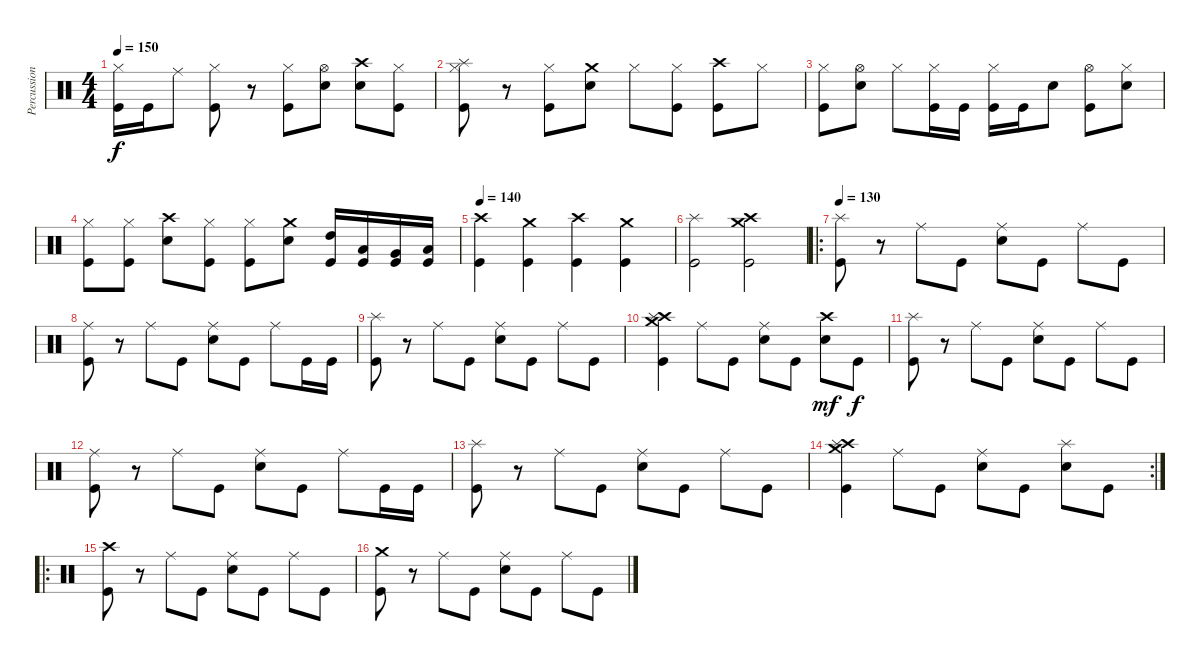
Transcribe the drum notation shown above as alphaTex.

\track ("Percussion" "Percussion") {instrument percussion}
\staff {score}
\articulation defaults
\ts (4 4)
\tempo 150
\clef neutral
\ks c
("Hi-Hat (closed)" "Kick (hit)").16{dy f} "Kick (hit)".16 "Ride (middle)".8 ("Hi-Hat (closed)" "Kick (hit)").8 r.8 ("Hi-Hat (closed)" "Kick (hit)").8 ("Hi-Hat (open)" "Electric Snare (hit)").8 ("Crash high (hit)" "Electric Snare (hit)").8 ("Hi-Hat (closed)" "Kick (hit)").8 |
("Splash (hit)" "Hi-Hat (closed)" "Kick (hit)").8 r.8 ("Hi-Hat (closed)" "Kick (hit)").8 ("Crash medium (hit)" "Electric Snare (hit)").8 "Hi-Hat (closed)".8 ("Hi-Hat (closed)" "Kick (hit)").8 ("Crash high (hit)" "Kick (hit)").8 "Hi-Hat (closed)".8 |
("Hi-Hat (closed)" "Kick (hit)").8 ("Hi-Hat (open)" "Electric Snare (hit)").8 "Hi-Hat (closed)".8 ("Hi-Hat (closed)" "Kick (hit)").16 "Kick (hit)".16 ("Hi-Hat (closed)" "Kick (hit)").16 "Kick (hit)".16 "Electric Snare (hit)".8 ("Hi-Hat (open)" "Kick (hit)").8 ("Hi-Hat (closed)" "Electric Snare (hit)").8 |
("Hi-Hat (closed)" "Kick (hit)").8 ("Hi-Hat (closed)" "Kick (hit)").8 ("Crash high (hit)" "Electric Snare (hit)").8 ("Hi-Hat (closed)" "Kick (hit)").8 ("Hi-Hat (closed)" "Kick (hit)").8 ("Crash medium (hit)" "Electric Snare (hit)").8 ("High Tom (hit)" "Kick (hit)").16 ("Low Tom (hit)" "Kick (hit)").16 ("Very Low Tom (hit)" "Kick (hit)").16 ("Low Floor Tom (hit)" "Kick (hit)").16 |
\tempo 140
("Crash high (hit)" "Kick (hit)").4 ("Crash medium (hit)" "Kick (hit)").4 ("Crash high (hit)" "Kick (hit)").4 ("Crash medium (hit)" "Kick (hit)").4 |
("Splash (hit)" "Kick (hit)").2 ("Crash medium (hit)" "Crash high (hit)" "Kick (hit)").2 |
\ro
\tempo 130
("Splash (hit)" "Kick (hit)").8 r.8 "Ride (middle)".8 "Kick (hit)".8 ("Ride (middle)" "Electric Snare (hit)").8 "Kick (hit)".8 "Ride (middle)".8 "Kick (hit)".8 |
("Ride (middle)" "Kick (hit)").8 r.8 "Ride (middle)".8 "Kick (hit)".8 ("Ride (middle)" "Electric Snare (hit)").8 "Kick (hit)".8 "Ride (middle)".8 "Kick (hit)".16 "Kick (hit)".16 |
("Splash (hit)" "Kick (hit)").8 r.8 "Ride (middle)".8 "Kick (hit)".8 ("Ride (middle)" "Electric Snare (hit)").8 "Kick (hit)".8 "Ride (middle)".8 "Kick (hit)".8 |
("Crash high (hit)" "Crash medium (hit)" "Splash (hit)" "Kick (hit)").4 "Ride (middle)".8 "Kick (hit)".8 ("Ride (middle)" "Electric Snare (hit)").8 "Kick (hit)".8 ("Crash high (hit)" "Electric Snare (hit)").8{dy mf} "Kick (hit)".8{dy f} |
("Splash (hit)" "Kick (hit)").8 r.8 "Ride (middle)".8 "Kick (hit)".8 ("Ride (middle)" "Electric Snare (hit)").8 "Kick (hit)".8 "Ride (middle)".8 "Kick (hit)".8 |
("Ride (middle)" "Kick (hit)").8 r.8 "Ride (middle)".8 "Kick (hit)".8 ("Ride (middle)" "Electric Snare (hit)").8 "Kick (hit)".8 "Ride (middle)".8 "Kick (hit)".16 "Kick (hit)".16 |
("Splash (hit)" "Kick (hit)").8 r.8 "Ride (middle)".8 "Kick (hit)".8 ("Ride (middle)" "Electric Snare (hit)").8 "Kick (hit)".8 "Ride (middle)".8 "Kick (hit)".8 |
\rc 2
("Crash high (hit)" "Crash medium (hit)" "Splash (hit)" "Kick (hit)").4 "Ride (middle)".8 "Kick (hit)".8 ("Ride (middle)" "Electric Snare (hit)").8 "Kick (hit)".8 ("Splash (hit)" "Electric Snare (hit)").8 "Kick (hit)".8 |
\ro
("Crash high (hit)" "Kick (hit)").8 r.8 "Ride (middle)".8 "Kick (hit)".8 ("Ride (middle)" "Electric Snare (hit)").8 "Kick (hit)".8 "Ride (middle)".8 "Kick (hit)".8 |
("Crash medium (hit)" "Kick (hit)").8 r.8 "Ride (middle)".8 "Kick (hit)".8 ("Ride (middle)" "Electric Snare (hit)").8 "Kick (hit)".8 "Ride (middle)".8 "Kick (hit)".8
